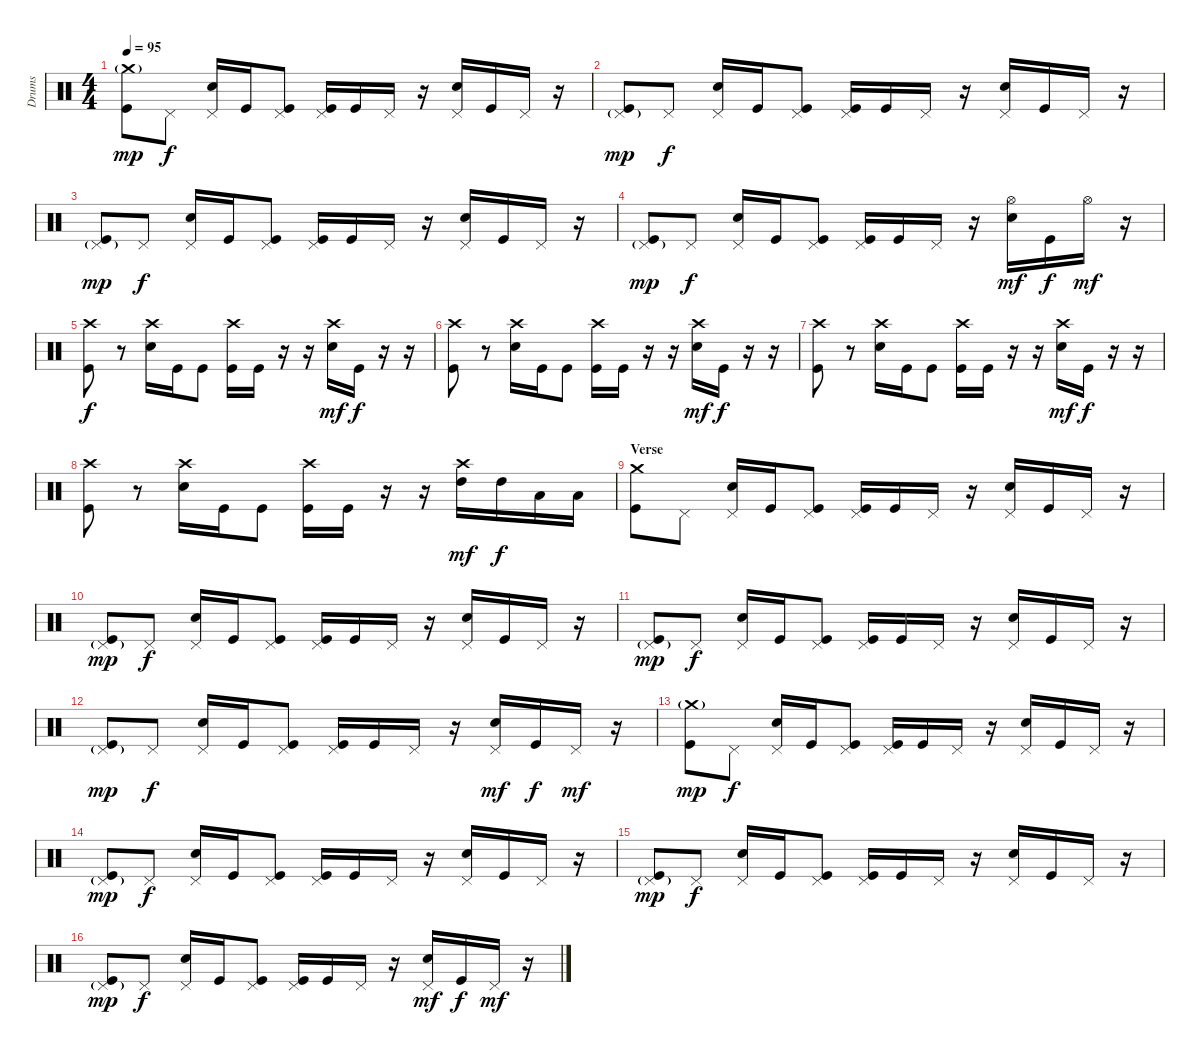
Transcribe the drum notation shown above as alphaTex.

\track ("Drums" "Drums") {instrument percussion}
\staff {score}
\articulation defaults
\ts (4 4)
\tempo 95
\clef neutral
\ks c
("Crash medium (hit)"{g} "Kick (hit)").8{dy mp} "Pedal Hi-Hat (hit)".8{dy f} ("Pedal Hi-Hat (hit)" "Snare (hit) 2").16 "Kick (hit)".16 ("Pedal Hi-Hat (hit)" "Kick (hit)").8 ("Pedal Hi-Hat (hit)" "Kick (hit)").16 "Kick (hit)".16 "Pedal Hi-Hat (hit)".16 r.16 ("Pedal Hi-Hat (hit)" "Snare (hit) 2").16 "Kick (hit)".16 "Pedal Hi-Hat (hit)".16 r.16 |
("Pedal Hi-Hat (hit)"{g} "Kick (hit)").8{dy mp} "Pedal Hi-Hat (hit)".8{dy f} ("Pedal Hi-Hat (hit)" "Snare (hit) 2").16 "Kick (hit)".16 ("Pedal Hi-Hat (hit)" "Kick (hit)").8 ("Pedal Hi-Hat (hit)" "Kick (hit)").16 "Kick (hit)".16 "Pedal Hi-Hat (hit)".16 r.16 ("Pedal Hi-Hat (hit)" "Snare (hit) 2").16 "Kick (hit)".16 "Pedal Hi-Hat (hit)".16 r.16 |
("Pedal Hi-Hat (hit)"{g} "Kick (hit)").8{dy mp} "Pedal Hi-Hat (hit)".8{dy f} ("Pedal Hi-Hat (hit)" "Snare (hit) 2").16 "Kick (hit)".16 ("Pedal Hi-Hat (hit)" "Kick (hit)").8 ("Pedal Hi-Hat (hit)" "Kick (hit)").16 "Kick (hit)".16 "Pedal Hi-Hat (hit)".16 r.16 ("Pedal Hi-Hat (hit)" "Snare (hit) 2").16 "Kick (hit)".16 "Pedal Hi-Hat (hit)".16 r.16 |
("Pedal Hi-Hat (hit)"{g} "Kick (hit)").8{dy mp} "Pedal Hi-Hat (hit)".8{dy f} ("Pedal Hi-Hat (hit)" "Snare (hit) 2").16 "Kick (hit)".16 ("Pedal Hi-Hat (hit)" "Kick (hit)").8 ("Pedal Hi-Hat (hit)" "Kick (hit)").16 "Kick (hit)".16 "Pedal Hi-Hat (hit)".16 r.16 ("Hi-Hat (open)" "Snare (hit) 2").16{dy mf} "Kick (hit)".16{dy f} "Hi-Hat (open)".16{dy mf} r.16 |
\section ("" "")
("Crash high (hit)" "Kick (hit)").8{dy f} r.8 ("Crash high (hit)" "Snare (hit) 2").16 "Kick (hit)".16 "Kick (hit)".8 ("Crash high (hit)" "Kick (hit)").16 "Kick (hit)".16 r.16 r.16 ("Crash high (hit)" "Snare (hit) 2").16{dy mf} "Kick (hit)".16{dy f} r.16 r.16 |
("Crash high (hit)" "Kick (hit)").8 r.8 ("Crash high (hit)" "Snare (hit) 2").16 "Kick (hit)".16 "Kick (hit)".8 ("Crash high (hit)" "Kick (hit)").16 "Kick (hit)".16 r.16 r.16 ("Crash high (hit)" "Snare (hit) 2").16{dy mf} "Kick (hit)".16{dy f} r.16 r.16 |
("Crash high (hit)" "Kick (hit)").8 r.8 ("Crash high (hit)" "Snare (hit) 2").16 "Kick (hit)".16 "Kick (hit)".8 ("Crash high (hit)" "Kick (hit)").16 "Kick (hit)".16 r.16 r.16 ("Crash high (hit)" "Snare (hit) 2").16{dy mf} "Kick (hit)".16{dy f} r.16 r.16 |
("Crash high (hit)" "Kick (hit)").8 r.8 ("Crash high (hit)" "Snare (hit) 2").16 "Kick (hit)".16 "Kick (hit)".8 ("Crash high (hit)" "Kick (hit)").16 "Kick (hit)".16 r.16 r.16 ("Crash high (hit)" "High Tom (hit)").16{dy mf} "High Tom (hit)".16{dy f} "Low Tom (hit)".16 "Low Tom (hit)".16 |
\section ("" "Verse")
("Crash medium (hit)" "Kick (hit)").8 "Pedal Hi-Hat (hit)".8 ("Pedal Hi-Hat (hit)" "Snare (hit) 2").16 "Kick (hit)".16 ("Pedal Hi-Hat (hit)" "Kick (hit)").8 ("Pedal Hi-Hat (hit)" "Kick (hit)").16 "Kick (hit)".16 "Pedal Hi-Hat (hit)".16 r.16 ("Pedal Hi-Hat (hit)" "Snare (hit) 2").16 "Kick (hit)".16 "Pedal Hi-Hat (hit)".16 r.16 |
("Pedal Hi-Hat (hit)"{g} "Kick (hit)").8{dy mp} "Pedal Hi-Hat (hit)".8{dy f} ("Pedal Hi-Hat (hit)" "Snare (hit) 2").16 "Kick (hit)".16 ("Pedal Hi-Hat (hit)" "Kick (hit)").8 ("Pedal Hi-Hat (hit)" "Kick (hit)").16 "Kick (hit)".16 "Pedal Hi-Hat (hit)".16 r.16 ("Pedal Hi-Hat (hit)" "Snare (hit) 2").16 "Kick (hit)".16 "Pedal Hi-Hat (hit)".16 r.16 |
("Pedal Hi-Hat (hit)"{g} "Kick (hit)").8{dy mp} "Pedal Hi-Hat (hit)".8{dy f} ("Pedal Hi-Hat (hit)" "Snare (hit) 2").16 "Kick (hit)".16 ("Pedal Hi-Hat (hit)" "Kick (hit)").8 ("Pedal Hi-Hat (hit)" "Kick (hit)").16 "Kick (hit)".16 "Pedal Hi-Hat (hit)".16 r.16 ("Pedal Hi-Hat (hit)" "Snare (hit) 2").16 "Kick (hit)".16 "Pedal Hi-Hat (hit)".16 r.16 |
("Pedal Hi-Hat (hit)"{g} "Kick (hit)").8{dy mp} "Pedal Hi-Hat (hit)".8{dy f} ("Pedal Hi-Hat (hit)" "Snare (hit) 2").16 "Kick (hit)".16 ("Pedal Hi-Hat (hit)" "Kick (hit)").8 ("Pedal Hi-Hat (hit)" "Kick (hit)").16 "Kick (hit)".16 "Pedal Hi-Hat (hit)".16 r.16 ("Pedal Hi-Hat (hit)" "Snare (hit) 2").16{dy mf} "Kick (hit)".16{dy f} "Pedal Hi-Hat (hit)".16{dy mf} r.16 |
("Crash medium (hit)"{g} "Kick (hit)").8{dy mp} "Pedal Hi-Hat (hit)".8{dy f} ("Pedal Hi-Hat (hit)" "Snare (hit) 2").16 "Kick (hit)".16 ("Pedal Hi-Hat (hit)" "Kick (hit)").8 ("Pedal Hi-Hat (hit)" "Kick (hit)").16 "Kick (hit)".16 "Pedal Hi-Hat (hit)".16 r.16 ("Pedal Hi-Hat (hit)" "Snare (hit) 2").16 "Kick (hit)".16 "Pedal Hi-Hat (hit)".16 r.16 |
("Pedal Hi-Hat (hit)"{g} "Kick (hit)").8{dy mp} "Pedal Hi-Hat (hit)".8{dy f} ("Pedal Hi-Hat (hit)" "Snare (hit) 2").16 "Kick (hit)".16 ("Pedal Hi-Hat (hit)" "Kick (hit)").8 ("Pedal Hi-Hat (hit)" "Kick (hit)").16 "Kick (hit)".16 "Pedal Hi-Hat (hit)".16 r.16 ("Pedal Hi-Hat (hit)" "Snare (hit) 2").16 "Kick (hit)".16 "Pedal Hi-Hat (hit)".16 r.16 |
("Pedal Hi-Hat (hit)"{g} "Kick (hit)").8{dy mp} "Pedal Hi-Hat (hit)".8{dy f} ("Pedal Hi-Hat (hit)" "Snare (hit) 2").16 "Kick (hit)".16 ("Pedal Hi-Hat (hit)" "Kick (hit)").8 ("Pedal Hi-Hat (hit)" "Kick (hit)").16 "Kick (hit)".16 "Pedal Hi-Hat (hit)".16 r.16 ("Pedal Hi-Hat (hit)" "Snare (hit) 2").16 "Kick (hit)".16 "Pedal Hi-Hat (hit)".16 r.16 |
("Pedal Hi-Hat (hit)"{g} "Kick (hit)").8{dy mp} "Pedal Hi-Hat (hit)".8{dy f} ("Pedal Hi-Hat (hit)" "Snare (hit) 2").16 "Kick (hit)".16 ("Pedal Hi-Hat (hit)" "Kick (hit)").8 ("Pedal Hi-Hat (hit)" "Kick (hit)").16 "Kick (hit)".16 "Pedal Hi-Hat (hit)".16 r.16 ("Pedal Hi-Hat (hit)" "Snare (hit) 2").16{dy mf} "Kick (hit)".16{dy f} "Pedal Hi-Hat (hit)".16{dy mf} r.16
